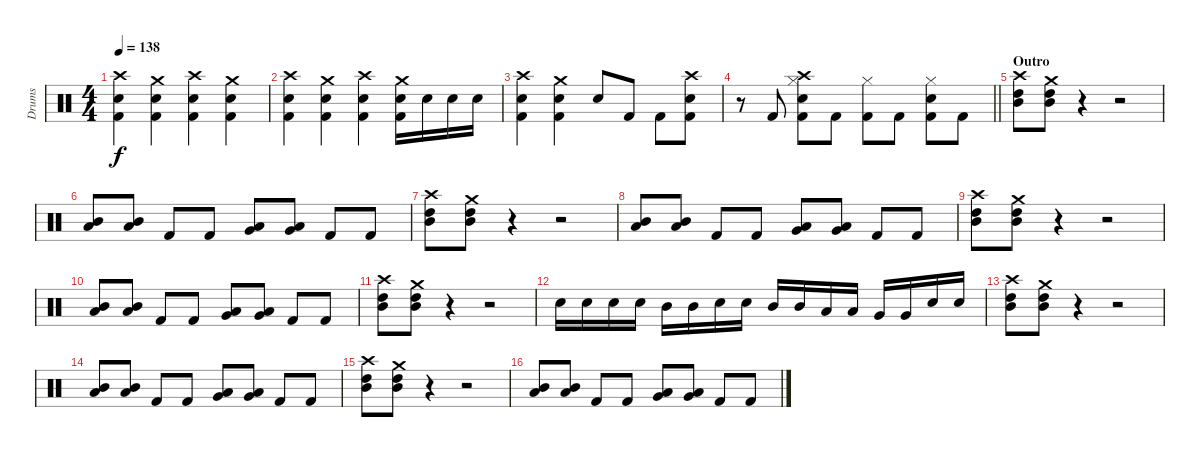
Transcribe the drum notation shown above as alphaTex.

\track ("Drums" "Drums") {instrument percussion}
\staff {score}
\articulation defaults
\ts (4 4)
\tempo 138
\clef neutral
\ks c
("Crash high (hit)" "Snare (hit) 2" "Kick (hit) 2").4{dy f} ("Crash medium (hit)" "Snare (hit) 2" "Kick (hit) 2").4 ("Crash high (hit)" "Snare (hit) 2" "Kick (hit) 2").4 ("Crash medium (hit)" "Snare (hit) 2" "Kick (hit) 2").4 |
("Crash high (hit)" "Snare (hit) 2" "Kick (hit) 2").4 ("Crash medium (hit)" "Snare (hit) 2" "Kick (hit) 2").4 ("Crash high (hit)" "Snare (hit) 2" "Kick (hit) 2").4 ("Crash medium (hit)" "Snare (hit) 2" "Kick (hit) 2").16 "Snare (hit) 2".16 "Snare (hit) 2".16 "Snare (hit) 2".16 |
("Crash high (hit)" "Snare (hit) 2" "Kick (hit) 2").4 ("Crash medium (hit)" "Snare (hit) 2" "Kick (hit) 2").4 "Snare (hit) 2".8 "Kick (hit) 2".8 "Kick (hit) 2".8 ("Crash high (hit)" "Snare (hit) 2" "Kick (hit) 2").8 |
\barLineRight lightlight
r.8 "Kick (hit) 2".8 ("Crash high (hit)" "Snare (hit) 2" "Hi-Hat (closed)" "Kick (hit) 2").8 "Kick (hit) 2".8 ("Hi-Hat (closed)" "Kick (hit) 2").8 "Kick (hit) 2".8 ("Snare (hit) 2" "Hi-Hat (closed)" "Kick (hit) 2").8 "Kick (hit) 2".8 |
\section ("" "Outro")
("Crash high (hit)" "High Tom (hit)" "Mid Tom (hit)").8 ("Crash medium (hit)" "High Tom (hit)" "Mid Tom (hit)").8 r.4 r.2 |
("Mid Tom (hit)" "Low Tom (hit)").8 ("Mid Tom (hit)" "Low Tom (hit)").8 "Kick (hit) 2".8 "Kick (hit) 2".8 ("Low Tom (hit)" "Very Low Tom (hit)").8 ("Low Tom (hit)" "Very Low Tom (hit)").8 "Kick (hit) 2".8 "Kick (hit) 2".8 |
("Crash high (hit)" "High Tom (hit)" "Mid Tom (hit)").8 ("Crash medium (hit)" "High Tom (hit)" "Mid Tom (hit)").8 r.4 r.2 |
("Mid Tom (hit)" "Low Tom (hit)").8 ("Mid Tom (hit)" "Low Tom (hit)").8 "Kick (hit) 2".8 "Kick (hit) 2".8 ("Low Tom (hit)" "Very Low Tom (hit)").8 ("Low Tom (hit)" "Very Low Tom (hit)").8 "Kick (hit) 2".8 "Kick (hit) 2".8 |
("Crash high (hit)" "High Tom (hit)" "Mid Tom (hit)").8 ("Crash medium (hit)" "High Tom (hit)" "Mid Tom (hit)").8 r.4 r.2 |
("Mid Tom (hit)" "Low Tom (hit)").8 ("Mid Tom (hit)" "Low Tom (hit)").8 "Kick (hit) 2".8 "Kick (hit) 2".8 ("Low Tom (hit)" "Very Low Tom (hit)").8 ("Low Tom (hit)" "Very Low Tom (hit)").8 "Kick (hit) 2".8 "Kick (hit) 2".8 |
("Crash high (hit)" "High Tom (hit)" "Mid Tom (hit)").8 ("Crash medium (hit)" "High Tom (hit)" "Mid Tom (hit)").8 r.4 r.2 |
"Snare (hit) 2".16 "Snare (hit) 2".16 "Snare (hit) 2".16 "Snare (hit) 2".16 "Mid Tom (hit)".16 "Mid Tom (hit)".16 "Snare (hit) 2".16 "Snare (hit) 2".16 "Mid Tom (hit)".16 "Mid Tom (hit)".16 "Low Tom (hit)".16 "Low Tom (hit)".16 "Very Low Tom (hit)".16 "Very Low Tom (hit)".16 "Snare (hit) 2".16 "Snare (hit) 2".16 |
("Crash high (hit)" "High Tom (hit)" "Mid Tom (hit)").8 ("Crash medium (hit)" "High Tom (hit)" "Mid Tom (hit)").8 r.4 r.2 |
("Mid Tom (hit)" "Low Tom (hit)").8 ("Mid Tom (hit)" "Low Tom (hit)").8 "Kick (hit) 2".8 "Kick (hit) 2".8 ("Low Tom (hit)" "Very Low Tom (hit)").8 ("Low Tom (hit)" "Very Low Tom (hit)").8 "Kick (hit) 2".8 "Kick (hit) 2".8 |
("Crash high (hit)" "High Tom (hit)" "Mid Tom (hit)").8 ("Crash medium (hit)" "High Tom (hit)" "Mid Tom (hit)").8 r.4 r.2 |
("Mid Tom (hit)" "Low Tom (hit)").8 ("Mid Tom (hit)" "Low Tom (hit)").8 "Kick (hit) 2".8 "Kick (hit) 2".8 ("Low Tom (hit)" "Very Low Tom (hit)").8 ("Low Tom (hit)" "Very Low Tom (hit)").8 "Kick (hit) 2".8 "Kick (hit) 2".8
